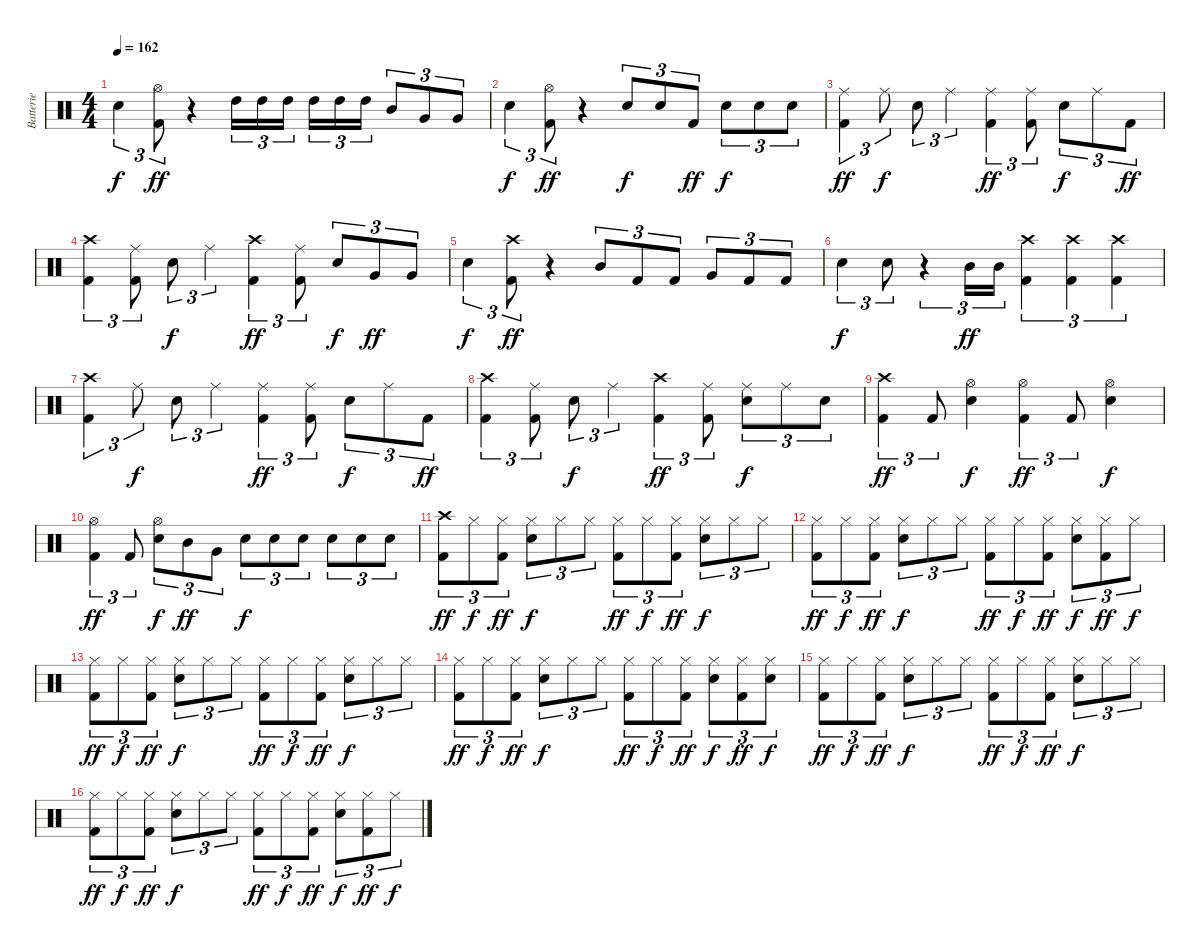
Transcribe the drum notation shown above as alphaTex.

\track ("Batterie" "Batterie") {instrument percussion}
\staff {score}
\articulation defaults
\ts (4 4)
\tempo 162
\clef neutral
\ks c "Snare (hit) 2".4{tu (3 2) dy f}
("Hi-Hat (open)" "Kick (hit) 2").8{tu (3 2) dy ff} r.4 "High Tom (hit)".16{tu (3 2)} "High Tom (hit)".16{tu (3 2)} "High Tom (hit)".16{tu (3 2)} "High Tom (hit)".16{tu (3 2)} "High Tom (hit)".16{tu (3 2)} "High Tom (hit)".16{tu (3 2)} "Mid Tom (hit)".8{tu (3 2)} "Very Low Tom (hit)".8{tu (3 2)} "Very Low Tom (hit)".8{tu (3 2)} |
"Snare (hit) 2".4{tu (3 2) dy f} ("Hi-Hat (open)" "Kick (hit) 2").8{tu (3 2) dy ff} r.4 "Snare (hit) 2".8{tu (3 2) dy f} "Snare (hit) 2".8{tu (3 2)} "Kick (hit) 2".8{tu (3 2) dy ff} "Snare (hit) 2".8{tu (3 2) dy f} "Snare (hit) 2".8{tu (3 2)} "Snare (hit) 2".8{tu (3 2)} |
("Ride (middle)" "Kick (hit) 2").4{tu (3 2) dy ff} "Ride (middle)".8{tu (3 2) dy f} "Snare (hit) 2".8{tu (3 2)} "Ride (middle)".4{tu (3 2)} ("Ride (middle)" "Kick (hit) 2").4{tu (3 2) dy ff} ("Ride (middle)" "Kick (hit) 2").8{tu (3 2)} "Snare (hit) 2".8{tu (3 2) dy f} "Ride (middle)".8{tu (3 2)} "Kick (hit) 2".8{tu (3 2) dy ff} |
("Crash high (hit)" "Kick (hit) 2").4{tu (3 2)} ("Ride (middle)" "Kick (hit) 2").8{tu (3 2)} "Snare (hit) 2".8{tu (3 2) dy f} "Ride (middle)".4{tu (3 2)} ("Crash high (hit)" "Kick (hit) 2").4{tu (3 2) dy ff} ("Ride (middle)" "Kick (hit) 2").8{tu (3 2)} "Snare (hit) 2".8{tu (3 2) dy f} "Very Low Tom (hit)".8{tu (3 2) dy ff} "Very Low Tom (hit)".8{tu (3 2)} |
"Snare (hit) 2".4{tu (3 2) dy f} ("Crash high (hit)" "Kick (hit) 2").8{tu (3 2) dy ff} r.4 "Mid Tom (hit)".8{tu (3 2)} "Kick (hit) 2".8{tu (3 2)} "Kick (hit) 2".8{tu (3 2)} "Very Low Tom (hit)".8{tu (3 2)} "Kick (hit) 2".8{tu (3 2)} "Kick (hit) 2".8{tu (3 2)} |
"Snare (hit) 2".4{tu (3 2) dy f} "Snare (hit) 2".8{tu (3 2)} r.4{tu (3 2)} "Mid Tom (hit)".16{tu (3 2) dy ff} "Mid Tom (hit)".16{tu (3 2)} ("Crash high (hit)" "Kick (hit) 2").4{tu (3 2)} ("Crash high (hit)" "Kick (hit) 2").4{tu (3 2)} ("Crash high (hit)" "Kick (hit) 2").4{tu (3 2)} |
("Crash high (hit)" "Kick (hit) 2").4{tu (3 2)} "Ride (middle)".8{tu (3 2) dy f} "Snare (hit) 2".8{tu (3 2)} "Ride (middle)".4{tu (3 2)} ("Ride (middle)" "Kick (hit) 2").4{tu (3 2) dy ff} ("Ride (middle)" "Kick (hit) 2").8{tu (3 2)} "Snare (hit) 2".8{tu (3 2) dy f} "Ride (middle)".8{tu (3 2)} "Kick (hit) 2".8{tu (3 2) dy ff} |
("Crash high (hit)" "Kick (hit) 2").4{tu (3 2)} ("Ride (middle)" "Kick (hit) 2").8{tu (3 2)} "Snare (hit) 2".8{tu (3 2) dy f} "Ride (middle)".4{tu (3 2)} ("Crash high (hit)" "Kick (hit) 2").4{tu (3 2) dy ff} ("Ride (middle)" "Kick (hit) 2").8{tu (3 2)} ("Ride (middle)" "Snare (hit) 2").8{tu (3 2) dy f} "Ride (middle)".8{tu (3 2)} "Snare (hit) 2".8{tu (3 2)} |
("Crash high (hit)" "Kick (hit) 2").4{tu (3 2) dy ff} "Kick (hit) 2".8{tu (3 2)} ("Hi-Hat (open)" "Snare (hit) 2").4{dy f} ("Hi-Hat (open)" "Kick (hit) 2").4{tu (3 2) dy ff} "Kick (hit) 2".8{tu (3 2)} ("Hi-Hat (open)" "Snare (hit) 2").4{dy f} |
("Hi-Hat (open)" "Kick (hit) 2").4{tu (3 2) dy ff} "Kick (hit) 2".8{tu (3 2)} ("Hi-Hat (open)" "Snare (hit) 2").8{tu (3 2) dy f} "Mid Tom (hit)".8{tu (3 2) dy ff} "Very Low Tom (hit)".8{tu (3 2)} "Snare (hit) 2".8{tu (3 2) dy f} "Snare (hit) 2".8{tu (3 2)} "Snare (hit) 2".8{tu (3 2)} "Snare (hit) 2".8{tu (3 2)} "Snare (hit) 2".8{tu (3 2)} "Snare (hit) 2".8{tu (3 2)} |
("Crash high (hit)" "Kick (hit) 2").8{tu (3 2) dy ff} "Hi-Hat (closed)".8{tu (3 2) dy f} ("Hi-Hat (closed)" "Kick (hit) 2").8{tu (3 2) dy ff} ("Hi-Hat (closed)" "Snare (hit) 2").8{tu (3 2) dy f} "Hi-Hat (closed)".8{tu (3 2)} "Hi-Hat (closed)".8{tu (3 2)} ("Hi-Hat (closed)" "Kick (hit) 2").8{tu (3 2) dy ff} "Hi-Hat (closed)".8{tu (3 2) dy f} ("Hi-Hat (closed)" "Kick (hit) 2").8{tu (3 2) dy ff} ("Hi-Hat (closed)" "Snare (hit) 2").8{tu (3 2) dy f} "Hi-Hat (closed)".8{tu (3 2)} "Hi-Hat (closed)".8{tu (3 2)} |
("Hi-Hat (closed)" "Kick (hit) 2").8{tu (3 2) dy ff} "Hi-Hat (closed)".8{tu (3 2) dy f} ("Hi-Hat (closed)" "Kick (hit) 2").8{tu (3 2) dy ff} ("Hi-Hat (closed)" "Snare (hit) 2").8{tu (3 2) dy f} "Hi-Hat (closed)".8{tu (3 2)} "Hi-Hat (closed)".8{tu (3 2)} ("Hi-Hat (closed)" "Kick (hit) 2").8{tu (3 2) dy ff} "Hi-Hat (closed)".8{tu (3 2) dy f} ("Hi-Hat (closed)" "Kick (hit) 2").8{tu (3 2) dy ff} ("Hi-Hat (closed)" "Snare (hit) 2").8{tu (3 2) dy f} ("Hi-Hat (closed)" "Kick (hit) 2").8{tu (3 2) dy ff} "Hi-Hat (closed)".8{tu (3 2) dy f} |
("Hi-Hat (closed)" "Kick (hit) 2").8{tu (3 2) dy ff} "Hi-Hat (closed)".8{tu (3 2) dy f} ("Hi-Hat (closed)" "Kick (hit) 2").8{tu (3 2) dy ff} ("Hi-Hat (closed)" "Snare (hit) 2").8{tu (3 2) dy f} "Hi-Hat (closed)".8{tu (3 2)} "Hi-Hat (closed)".8{tu (3 2)} ("Hi-Hat (closed)" "Kick (hit) 2").8{tu (3 2) dy ff} "Hi-Hat (closed)".8{tu (3 2) dy f} ("Hi-Hat (closed)" "Kick (hit) 2").8{tu (3 2) dy ff} ("Hi-Hat (closed)" "Snare (hit) 2").8{tu (3 2) dy f} "Hi-Hat (closed)".8{tu (3 2)} "Hi-Hat (closed)".8{tu (3 2)} |
("Hi-Hat (closed)" "Kick (hit) 2").8{tu (3 2) dy ff} "Hi-Hat (closed)".8{tu (3 2) dy f} ("Hi-Hat (closed)" "Kick (hit) 2").8{tu (3 2) dy ff} ("Hi-Hat (closed)" "Snare (hit) 2").8{tu (3 2) dy f} "Hi-Hat (closed)".8{tu (3 2)} "Hi-Hat (closed)".8{tu (3 2)} ("Hi-Hat (closed)" "Kick (hit) 2").8{tu (3 2) dy ff} "Hi-Hat (closed)".8{tu (3 2) dy f} ("Hi-Hat (closed)" "Kick (hit) 2").8{tu (3 2) dy ff} ("Hi-Hat (closed)" "Snare (hit) 2").8{tu (3 2) dy f} ("Hi-Hat (closed)" "Kick (hit) 2").8{tu (3 2) dy ff} ("Hi-Hat (closed)" "Snare (hit) 2").8{tu (3 2) dy f} |
("Hi-Hat (closed)" "Kick (hit) 2").8{tu (3 2) dy ff} "Hi-Hat (closed)".8{tu (3 2) dy f} ("Hi-Hat (closed)" "Kick (hit) 2").8{tu (3 2) dy ff} ("Hi-Hat (closed)" "Snare (hit) 2").8{tu (3 2) dy f} "Hi-Hat (closed)".8{tu (3 2)} "Hi-Hat (closed)".8{tu (3 2)} ("Hi-Hat (closed)" "Kick (hit) 2").8{tu (3 2) dy ff} "Hi-Hat (closed)".8{tu (3 2) dy f} ("Hi-Hat (closed)" "Kick (hit) 2").8{tu (3 2) dy ff} ("Hi-Hat (closed)" "Snare (hit) 2").8{tu (3 2) dy f} "Hi-Hat (closed)".8{tu (3 2)} "Hi-Hat (closed)".8{tu (3 2)} |
("Hi-Hat (closed)" "Kick (hit) 2").8{tu (3 2) dy ff} "Hi-Hat (closed)".8{tu (3 2) dy f} ("Hi-Hat (closed)" "Kick (hit) 2").8{tu (3 2) dy ff} ("Hi-Hat (closed)" "Snare (hit) 2").8{tu (3 2) dy f} "Hi-Hat (closed)".8{tu (3 2)} "Hi-Hat (closed)".8{tu (3 2)} ("Hi-Hat (closed)" "Kick (hit) 2").8{tu (3 2) dy ff} "Hi-Hat (closed)".8{tu (3 2) dy f} ("Hi-Hat (closed)" "Kick (hit) 2").8{tu (3 2) dy ff} ("Hi-Hat (closed)" "Snare (hit) 2").8{tu (3 2) dy f} ("Hi-Hat (closed)" "Kick (hit) 2").8{tu (3 2) dy ff} "Hi-Hat (closed)".8{tu (3 2) dy f}
